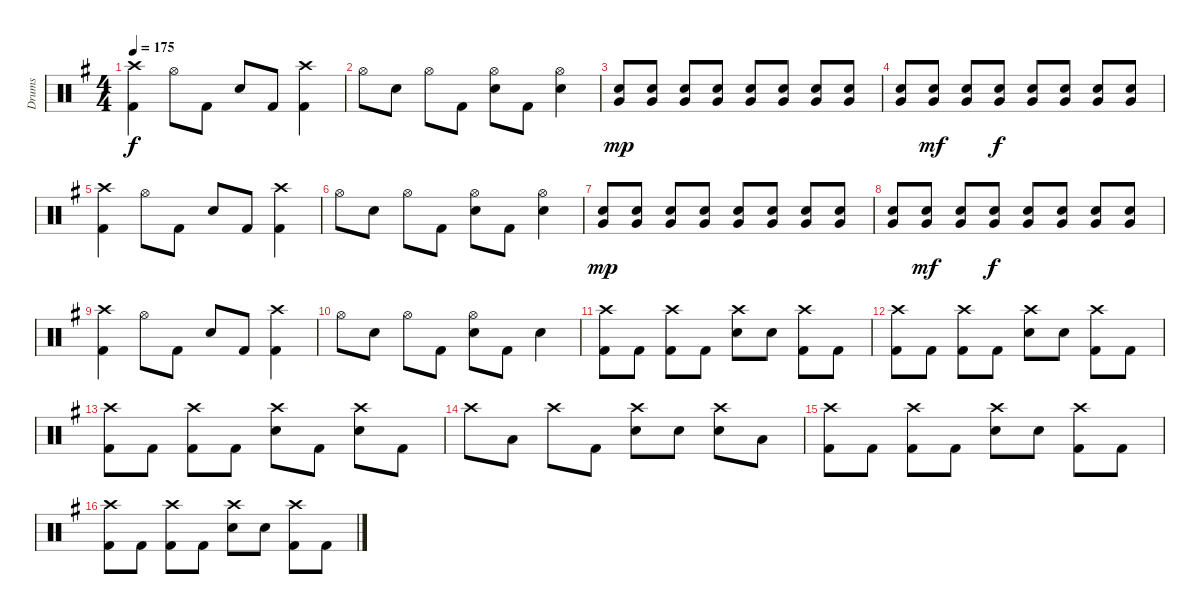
\track ("Drums" "Drums") {instrument percussion}
\staff {score}
\articulation defaults
\ts (4 4)
\tempo 175
\clef neutral
\ks g
("Crash high (hit)" "Kick (hit) 2").4{dy f} "Hi-Hat (open)".8 "Kick (hit) 2".8 "Electric Snare (hit)".8 "Kick (hit) 2".8 ("Crash high (hit)" "Kick (hit) 2").4 |
"Hi-Hat (open)".8 "Electric Snare (hit)".8 "Hi-Hat (open)".8 "Kick (hit) 2".8 ("Hi-Hat (open)" "Electric Snare (hit)").8 "Kick (hit) 2".8 ("Hi-Hat (open)" "Electric Snare (hit)").4 |
("Very Low Tom (hit)" "Electric Snare (hit)").8{dy mp} ("Very Low Tom (hit)" "Electric Snare (hit)").8 ("Very Low Tom (hit)" "Electric Snare (hit)").8 ("Very Low Tom (hit)" "Electric Snare (hit)").8 ("Very Low Tom (hit)" "Electric Snare (hit)").8 ("Very Low Tom (hit)" "Electric Snare (hit)").8 ("Very Low Tom (hit)" "Electric Snare (hit)").8 ("Very Low Tom (hit)" "Electric Snare (hit)").8 |
("Very Low Tom (hit)" "Electric Snare (hit)").8 ("Very Low Tom (hit)" "Electric Snare (hit)").8{dy mf} ("Very Low Tom (hit)" "Electric Snare (hit)").8 ("Very Low Tom (hit)" "Electric Snare (hit)").8{dy f} ("Very Low Tom (hit)" "Electric Snare (hit)").8 ("Very Low Tom (hit)" "Electric Snare (hit)").8 ("Very Low Tom (hit)" "Electric Snare (hit)").8 ("Very Low Tom (hit)" "Electric Snare (hit)").8 |
("Crash high (hit)" "Kick (hit) 2").4 "Hi-Hat (open)".8 "Kick (hit) 2".8 "Electric Snare (hit)".8 "Kick (hit) 2".8 ("Crash high (hit)" "Kick (hit) 2").4 |
"Hi-Hat (open)".8 "Electric Snare (hit)".8 "Hi-Hat (open)".8 "Kick (hit) 2".8 ("Hi-Hat (open)" "Electric Snare (hit)").8 "Kick (hit) 2".8 ("Hi-Hat (open)" "Electric Snare (hit)").4 |
("Very Low Tom (hit)" "Electric Snare (hit)").8{dy mp} ("Very Low Tom (hit)" "Electric Snare (hit)").8 ("Very Low Tom (hit)" "Electric Snare (hit)").8 ("Very Low Tom (hit)" "Electric Snare (hit)").8 ("Very Low Tom (hit)" "Electric Snare (hit)").8 ("Very Low Tom (hit)" "Electric Snare (hit)").8 ("Very Low Tom (hit)" "Electric Snare (hit)").8 ("Very Low Tom (hit)" "Electric Snare (hit)").8 |
("Very Low Tom (hit)" "Electric Snare (hit)").8 ("Very Low Tom (hit)" "Electric Snare (hit)").8{dy mf} ("Very Low Tom (hit)" "Electric Snare (hit)").8 ("Very Low Tom (hit)" "Electric Snare (hit)").8{dy f} ("Very Low Tom (hit)" "Electric Snare (hit)").8 ("Very Low Tom (hit)" "Electric Snare (hit)").8 ("Very Low Tom (hit)" "Electric Snare (hit)").8 ("Very Low Tom (hit)" "Electric Snare (hit)").8 |
("Crash high (hit)" "Kick (hit) 2").4 "Hi-Hat (open)".8 "Kick (hit) 2".8 "Electric Snare (hit)".8 "Kick (hit) 2".8 ("Crash high (hit)" "Kick (hit) 2").4 |
"Hi-Hat (open)".8 "Electric Snare (hit)".8 "Hi-Hat (open)".8 "Kick (hit) 2".8 ("Hi-Hat (open)" "Electric Snare (hit)").8 "Kick (hit) 2".8 "Electric Snare (hit)".4 |
("Crash high (hit)" "Kick (hit) 2").8 "Kick (hit) 2".8 ("Crash high (hit)" "Kick (hit) 2").8 "Kick (hit) 2".8 ("Crash high (hit)" "Electric Snare (hit)").8 "Electric Snare (hit)".8 ("Crash high (hit)" "Kick (hit) 2").8 "Kick (hit) 2".8 |
("Crash high (hit)" "Kick (hit) 2").8 "Kick (hit) 2".8 ("Crash high (hit)" "Kick (hit) 2").8 "Kick (hit) 2".8 ("Crash high (hit)" "Electric Snare (hit)").8 "Electric Snare (hit)".8 ("Crash high (hit)" "Kick (hit) 2").8 "Kick (hit) 2".8 |
("Crash high (hit)" "Kick (hit) 2").8 "Kick (hit) 2".8 ("Crash high (hit)" "Kick (hit) 2").8 "Kick (hit) 2".8 ("Crash high (hit)" "Electric Snare (hit)").8 "Kick (hit) 2".8 ("Crash high (hit)" "Electric Snare (hit)").8 "Kick (hit) 2".8 |
"Crash high (hit)".8 "Low Tom (hit)".8 "Crash high (hit)".8 "Kick (hit) 2".8 ("Crash high (hit)" "Electric Snare (hit)").8 "Electric Snare (hit)".8 ("Crash high (hit)" "Electric Snare (hit)").8 "Low Tom (hit)".8 |
("Crash high (hit)" "Kick (hit) 2").8 "Kick (hit) 2".8 ("Crash high (hit)" "Kick (hit) 2").8 "Kick (hit) 2".8 ("Crash high (hit)" "Electric Snare (hit)").8 "Electric Snare (hit)".8 ("Crash high (hit)" "Kick (hit) 2").8 "Kick (hit) 2".8 |
("Crash high (hit)" "Kick (hit) 2").8 "Kick (hit) 2".8 ("Crash high (hit)" "Kick (hit) 2").8 "Kick (hit) 2".8 ("Crash high (hit)" "Electric Snare (hit)").8 "Electric Snare (hit)".8 ("Crash high (hit)" "Kick (hit) 2").8 "Kick (hit) 2".8
